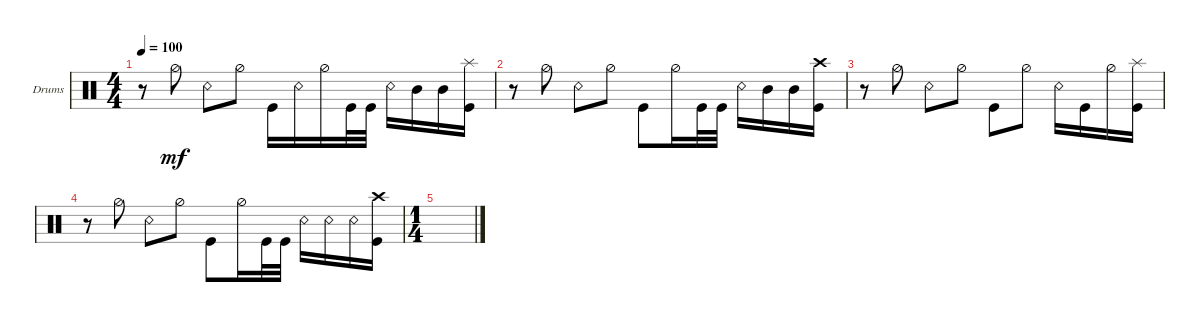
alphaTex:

\defaultSystemsLayout 4
\bracketExtendMode groupsimilarinstruments
\firstSystemTrackNameOrientation horizontal
\otherSystemsTrackNameOrientation horizontal
\track ("Drumkit" "Drums") {instrument percussion}
\staff {score}
\articulation defaults
\ts (4 4)
\tempo 100
\clef neutral
\ks c
r.8{dy mf} "Hi-Hat (half)".8 "Snare (rim shot)".8 "Hi-Hat (half)".8 "Kick (hit)".16 "Snare (rim shot)".16 "Hi-Hat (half)".16 "Kick (hit)".32 "Kick (hit)".32 "Snare (rim shot)".16 "Mid Tom (hit)".16 "Mid Tom (hit)".16 ("Kick (hit)" "Splash (hit)").16 |
r.8 "Hi-Hat (half)".8 "Snare (rim shot)".8 "Hi-Hat (half)".8 "Kick (hit)".8 "Hi-Hat (half)".16 "Kick (hit)".32 "Kick (hit)".32 "Snare (rim shot)".16 "Mid Tom (hit)".16 "Mid Tom (hit)".16 ("Kick (hit)" "Crash high (hit)").16 |
r.8 "Hi-Hat (half)".8 "Snare (rim shot)".8 "Hi-Hat (half)".8 "Kick (hit)".8 "Hi-Hat (half)".8 "Snare (rim shot)".16 "Kick (hit)".16 "Hi-Hat (half)".16 ("Kick (hit)" "Splash (hit)").16 |
r.8 "Hi-Hat (half)".8 "Snare (rim shot)".8 "Hi-Hat (half)".8 "Kick (hit)".8 "Hi-Hat (half)".16 "Kick (hit)".32 "Kick (hit)".32 "Snare (rim shot)".16 "Snare (rim shot)".16 "Snare (rim shot)".16 ("Kick (hit)" "Crash high (hit)").16 |
\ts (1 4)
